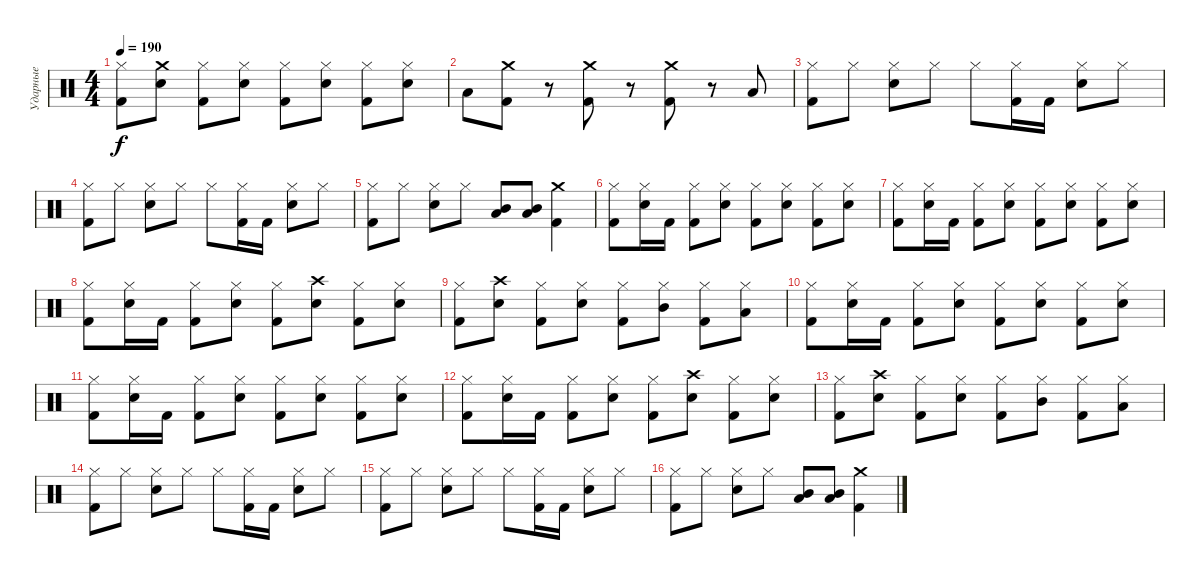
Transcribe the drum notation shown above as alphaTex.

\track ("Ударные" "Ударные") {instrument percussion}
\staff {score}
\articulation defaults
\ts (4 4)
\tempo 190
\clef neutral
\ks c
("Kick (hit) 2" "Hi-Hat (closed)").8{dy f} ("Snare (hit) 2" "Crash medium (hit)").8 ("Kick (hit) 2" "Hi-Hat (closed)").8 ("Snare (hit) 2" "Hi-Hat (closed)").8 ("Kick (hit) 2" "Hi-Hat (closed)").8 ("Snare (hit) 2" "Hi-Hat (closed)").8 ("Kick (hit) 2" "Hi-Hat (closed)").8 ("Snare (hit) 2" "Hi-Hat (closed)").8 |
"Low Tom (hit)".8 ("Kick (hit) 2" "Crash medium (hit)").8 r.8 ("Kick (hit) 2" "Crash medium (hit)").8 r.8 ("Kick (hit) 2" "Crash medium (hit)").8 r.8 "Low Tom (hit)".8 |
("Kick (hit) 2" "Hi-Hat (closed)").8 "Hi-Hat (closed)".8 ("Snare (hit) 2" "Hi-Hat (closed)").8 "Hi-Hat (closed)".8 "Hi-Hat (closed)".8 ("Kick (hit) 2" "Hi-Hat (closed)").16 "Kick (hit) 2".16 ("Snare (hit) 2" "Hi-Hat (closed)").8 "Hi-Hat (closed)".8 |
("Kick (hit) 2" "Hi-Hat (closed)").8 "Hi-Hat (closed)".8 ("Snare (hit) 2" "Hi-Hat (closed)").8 "Hi-Hat (closed)".8 "Hi-Hat (closed)".8 ("Kick (hit) 2" "Hi-Hat (closed)").16 "Kick (hit) 2".16 ("Snare (hit) 2" "Hi-Hat (closed)").8 "Hi-Hat (closed)".8 |
("Kick (hit) 2" "Hi-Hat (closed)").8 "Hi-Hat (closed)".8 ("Snare (hit) 2" "Hi-Hat (closed)").8 "Hi-Hat (closed)".8 ("Mid Tom (hit)" "Low Tom (hit)").8{bd 240} ("Mid Tom (hit)" "Low Tom (hit)").8{bu 240} ("Crash medium (hit)" "Kick (hit) 2").4 |
("Kick (hit) 2" "Hi-Hat (closed)").8 ("Snare (hit) 2" "Hi-Hat (closed)").16 "Kick (hit) 2".16 ("Kick (hit) 2" "Hi-Hat (closed)").8 ("Snare (hit) 2" "Hi-Hat (closed)").8 ("Kick (hit) 2" "Hi-Hat (closed)").8 ("Snare (hit) 2" "Hi-Hat (closed)").8 ("Kick (hit) 2" "Hi-Hat (closed)").8 ("Snare (hit) 2" "Hi-Hat (closed)").8 |
("Kick (hit) 2" "Hi-Hat (closed)").8 ("Snare (hit) 2" "Hi-Hat (closed)").16 "Kick (hit) 2".16 ("Kick (hit) 2" "Hi-Hat (closed)").8 ("Snare (hit) 2" "Hi-Hat (closed)").8 ("Kick (hit) 2" "Hi-Hat (closed)").8 ("Snare (hit) 2" "Hi-Hat (closed)").8 ("Kick (hit) 2" "Hi-Hat (closed)").8 ("Snare (hit) 2" "Hi-Hat (closed)").8 |
("Kick (hit) 2" "Hi-Hat (closed)").8 ("Snare (hit) 2" "Hi-Hat (closed)").16 "Kick (hit) 2".16 ("Kick (hit) 2" "Hi-Hat (closed)").8 ("Snare (hit) 2" "Hi-Hat (closed)").8 ("Kick (hit) 2" "Hi-Hat (closed)").8 ("Snare (hit) 2" "Crash high (hit)").8 ("Kick (hit) 2" "Hi-Hat (closed)").8 ("Snare (hit) 2" "Hi-Hat (closed)").8 |
("Kick (hit) 2" "Hi-Hat (closed)").8 ("Snare (hit) 2" "Crash high (hit)").8 ("Kick (hit) 2" "Hi-Hat (closed)").8 ("Snare (hit) 2" "Hi-Hat (closed)").8 ("Kick (hit) 2" "Hi-Hat (closed)").8 ("Hi-Hat (closed)" "Mid Tom (hit)").8 ("Kick (hit) 2" "Hi-Hat (closed)").8 ("Hi-Hat (closed)" "Low Tom (hit)").8 |
("Kick (hit) 2" "Hi-Hat (closed)").8 ("Snare (hit) 2" "Hi-Hat (closed)").16 "Kick (hit) 2".16 ("Kick (hit) 2" "Hi-Hat (closed)").8 ("Snare (hit) 2" "Hi-Hat (closed)").8 ("Kick (hit) 2" "Hi-Hat (closed)").8 ("Snare (hit) 2" "Hi-Hat (closed)").8 ("Kick (hit) 2" "Hi-Hat (closed)").8 ("Snare (hit) 2" "Hi-Hat (closed)").8 |
("Kick (hit) 2" "Hi-Hat (closed)").8 ("Snare (hit) 2" "Hi-Hat (closed)").16 "Kick (hit) 2".16 ("Kick (hit) 2" "Hi-Hat (closed)").8 ("Snare (hit) 2" "Hi-Hat (closed)").8 ("Kick (hit) 2" "Hi-Hat (closed)").8 ("Snare (hit) 2" "Hi-Hat (closed)").8 ("Kick (hit) 2" "Hi-Hat (closed)").8 ("Snare (hit) 2" "Hi-Hat (closed)").8 |
("Kick (hit) 2" "Hi-Hat (closed)").8 ("Snare (hit) 2" "Hi-Hat (closed)").16 "Kick (hit) 2".16 ("Kick (hit) 2" "Hi-Hat (closed)").8 ("Snare (hit) 2" "Hi-Hat (closed)").8 ("Kick (hit) 2" "Hi-Hat (closed)").8 ("Snare (hit) 2" "Crash high (hit)").8 ("Kick (hit) 2" "Hi-Hat (closed)").8 ("Snare (hit) 2" "Hi-Hat (closed)").8 |
("Kick (hit) 2" "Hi-Hat (closed)").8 ("Snare (hit) 2" "Crash high (hit)").8 ("Kick (hit) 2" "Hi-Hat (closed)").8 ("Snare (hit) 2" "Hi-Hat (closed)").8 ("Kick (hit) 2" "Hi-Hat (closed)").8 ("Hi-Hat (closed)" "Mid Tom (hit)").8 ("Kick (hit) 2" "Hi-Hat (closed)").8 ("Hi-Hat (closed)" "Low Tom (hit)").8 |
("Kick (hit) 2" "Hi-Hat (closed)").8 "Hi-Hat (closed)".8 ("Snare (hit) 2" "Hi-Hat (closed)").8 "Hi-Hat (closed)".8 "Hi-Hat (closed)".8 ("Kick (hit) 2" "Hi-Hat (closed)").16 "Kick (hit) 2".16 ("Snare (hit) 2" "Hi-Hat (closed)").8 "Hi-Hat (closed)".8 |
("Kick (hit) 2" "Hi-Hat (closed)").8 "Hi-Hat (closed)".8 ("Snare (hit) 2" "Hi-Hat (closed)").8 "Hi-Hat (closed)".8 "Hi-Hat (closed)".8 ("Kick (hit) 2" "Hi-Hat (closed)").16 "Kick (hit) 2".16 ("Snare (hit) 2" "Hi-Hat (closed)").8 "Hi-Hat (closed)".8 |
("Kick (hit) 2" "Hi-Hat (closed)").8 "Hi-Hat (closed)".8 ("Snare (hit) 2" "Hi-Hat (closed)").8 "Hi-Hat (closed)".8 ("Mid Tom (hit)" "Low Tom (hit)").8{bd 240} ("Mid Tom (hit)" "Low Tom (hit)").8{bu 240} ("Crash medium (hit)" "Kick (hit) 2").4
